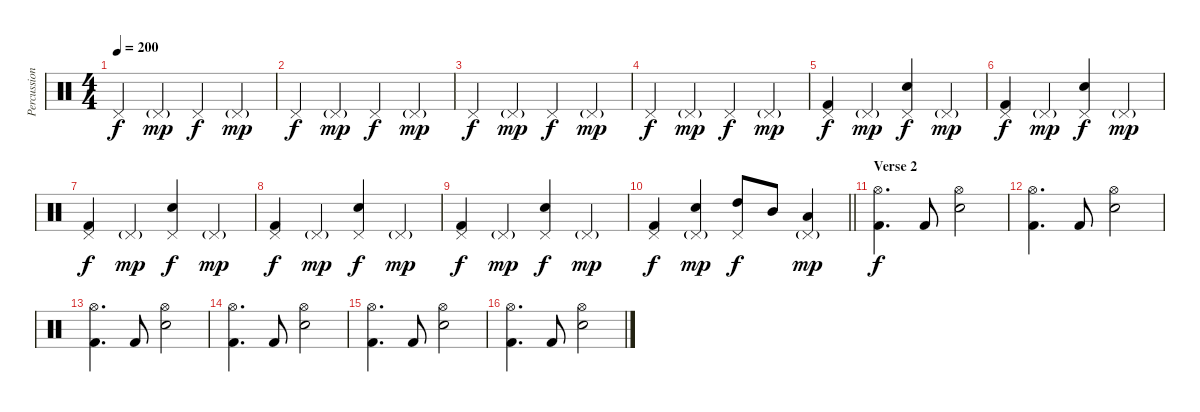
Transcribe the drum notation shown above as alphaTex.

\track ("Percussion" "Percussion") {instrument percussion}
\staff {score}
\articulation defaults
\ts (4 4)
\tempo 200
\clef neutral
\ks c "Pedal Hi-Hat (hit)".4{dy f} "Pedal Hi-Hat (hit)"{g}.4{dy mp} "Pedal Hi-Hat (hit)".4{dy f} "Pedal Hi-Hat (hit)"{g}.4{dy mp}
|
"Pedal Hi-Hat (hit)".4{dy f} "Pedal Hi-Hat (hit)"{g}.4{dy mp} "Pedal Hi-Hat (hit)".4{dy f} "Pedal Hi-Hat (hit)"{g}.4{dy mp} |
"Pedal Hi-Hat (hit)".4{dy f} "Pedal Hi-Hat (hit)"{g}.4{dy mp} "Pedal Hi-Hat (hit)".4{dy f} "Pedal Hi-Hat (hit)"{g}.4{dy mp} |
"Pedal Hi-Hat (hit)".4{dy f} "Pedal Hi-Hat (hit)"{g}.4{dy mp} "Pedal Hi-Hat (hit)".4{dy f} "Pedal Hi-Hat (hit)"{g}.4{dy mp} |
("Pedal Hi-Hat (hit)" "Kick (hit) 2").4{dy f} "Pedal Hi-Hat (hit)"{g}.4{dy mp} ("Pedal Hi-Hat (hit)" "Snare (hit) 2").4{dy f} "Pedal Hi-Hat (hit)"{g}.4{dy mp} |
("Pedal Hi-Hat (hit)" "Kick (hit) 2").4{dy f} "Pedal Hi-Hat (hit)"{g}.4{dy mp} ("Pedal Hi-Hat (hit)" "Snare (hit) 2").4{dy f} "Pedal Hi-Hat (hit)"{g}.4{dy mp} |
("Pedal Hi-Hat (hit)" "Kick (hit) 2").4{dy f} "Pedal Hi-Hat (hit)"{g}.4{dy mp} ("Pedal Hi-Hat (hit)" "Snare (hit) 2").4{dy f} "Pedal Hi-Hat (hit)"{g}.4{dy mp} |
("Pedal Hi-Hat (hit)" "Kick (hit) 2").4{dy f} "Pedal Hi-Hat (hit)"{g}.4{dy mp} ("Pedal Hi-Hat (hit)" "Snare (hit) 2").4{dy f} "Pedal Hi-Hat (hit)"{g}.4{dy mp} |
("Pedal Hi-Hat (hit)" "Kick (hit) 2").4{dy f} "Pedal Hi-Hat (hit)"{g}.4{dy mp} ("Pedal Hi-Hat (hit)" "Snare (hit) 2").4{dy f} "Pedal Hi-Hat (hit)"{g}.4{dy mp} |
\barLineRight lightlight
("Pedal Hi-Hat (hit)" "Kick (hit) 2").4{dy f} ("Pedal Hi-Hat (hit)"{g} "Snare (hit) 2").4{dy mp} ("Pedal Hi-Hat (hit)" "High Tom (hit)").8{dy f} "Mid Tom (hit)".8 ("Pedal Hi-Hat (hit)"{g} "Low Tom (hit)").4{dy mp} |
\section ("" "Verse 2")
("Hi-Hat (open)" "Kick (hit) 2").4{d dy f} "Kick (hit) 2".8 ("Hi-Hat (open)" "Electric Snare (hit)").2 |
("Hi-Hat (open)" "Kick (hit) 2").4{d} "Kick (hit) 2".8 ("Hi-Hat (open)" "Electric Snare (hit)").2 |
("Hi-Hat (open)" "Kick (hit) 2").4{d} "Kick (hit) 2".8 ("Hi-Hat (open)" "Electric Snare (hit)").2 |
("Hi-Hat (open)" "Kick (hit) 2").4{d} "Kick (hit) 2".8 ("Hi-Hat (open)" "Electric Snare (hit)").2 |
("Hi-Hat (open)" "Kick (hit) 2").4{d} "Kick (hit) 2".8 ("Hi-Hat (open)" "Electric Snare (hit)").2 |
("Hi-Hat (open)" "Kick (hit) 2").4{d} "Kick (hit) 2".8 ("Hi-Hat (open)" "Electric Snare (hit)").2
